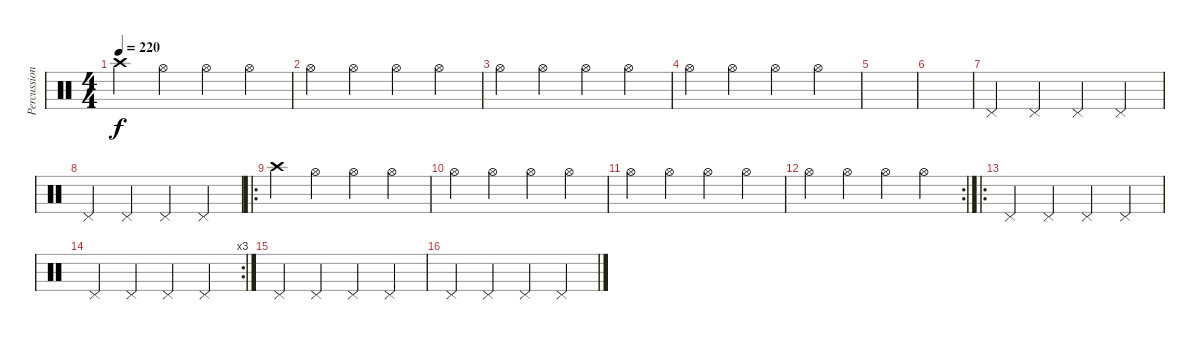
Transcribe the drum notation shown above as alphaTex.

\track ("Percussion" "Percussion") {instrument percussion}
\staff {score}
\articulation defaults
\ts (4 4)
\tempo 220
\clef neutral
\ks c "Crash high (hit)".4{dy f} "Hi-Hat (open)".4 "Hi-Hat (open)".4 "Hi-Hat (open)".4
|
"Hi-Hat (open)".4 "Hi-Hat (open)".4 "Hi-Hat (open)".4 "Hi-Hat (open)".4 |
"Hi-Hat (open)".4 "Hi-Hat (open)".4 "Hi-Hat (open)".4 "Hi-Hat (open)".4 |
"Hi-Hat (open)".4 "Hi-Hat (open)".4 "Hi-Hat (open)".4 "Hi-Hat (open)".4 |
|
|
"Pedal Hi-Hat (hit)".4 "Pedal Hi-Hat (hit)".4 "Pedal Hi-Hat (hit)".4 "Pedal Hi-Hat (hit)".4 |
"Pedal Hi-Hat (hit)".4 "Pedal Hi-Hat (hit)".4 "Pedal Hi-Hat (hit)".4 "Pedal Hi-Hat (hit)".4 |
\ro "Crash high (hit)".4 "Hi-Hat (open)".4 "Hi-Hat (open)".4 "Hi-Hat (open)".4
|
"Hi-Hat (open)".4 "Hi-Hat (open)".4 "Hi-Hat (open)".4 "Hi-Hat (open)".4 |
"Hi-Hat (open)".4 "Hi-Hat (open)".4 "Hi-Hat (open)".4 "Hi-Hat (open)".4 |
\rc 2 "Hi-Hat (open)".4 "Hi-Hat (open)".4 "Hi-Hat (open)".4 "Hi-Hat (open)".4
|
\ro "Pedal Hi-Hat (hit)".4 "Pedal Hi-Hat (hit)".4 "Pedal Hi-Hat (hit)".4 "Pedal Hi-Hat (hit)".4
|
\rc 3 "Pedal Hi-Hat (hit)".4 "Pedal Hi-Hat (hit)".4 "Pedal Hi-Hat (hit)".4 "Pedal Hi-Hat (hit)".4
|
"Pedal Hi-Hat (hit)".4 "Pedal Hi-Hat (hit)".4 "Pedal Hi-Hat (hit)".4 "Pedal Hi-Hat (hit)".4 |
"Pedal Hi-Hat (hit)".4 "Pedal Hi-Hat (hit)".4 "Pedal Hi-Hat (hit)".4 "Pedal Hi-Hat (hit)".4
